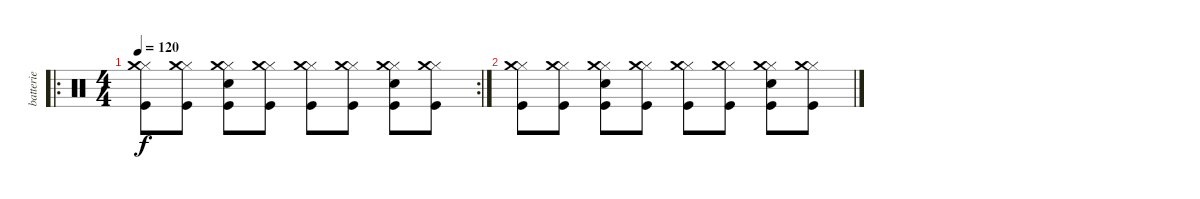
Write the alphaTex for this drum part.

\track ("batterie" "batterie") {instrument percussion}
\staff {score}
\articulation defaults
\ro
\rc 2
\ts (4 4)
\tempo 120
\clef neutral
\ks c
("Kick (hit)" "Hi-Hat (closed)" "Crash medium (hit)").8{dy f} ("Kick (hit)" "Hi-Hat (closed)" "Crash medium (hit)").8 ("Electric Snare (hit)" "Kick (hit)" "Hi-Hat (closed)" "Crash medium (hit)").8 ("Kick (hit)" "Hi-Hat (closed)" "Crash medium (hit)").8 ("Kick (hit)" "Hi-Hat (closed)" "Crash medium (hit)").8 ("Kick (hit)" "Hi-Hat (closed)" "Crash medium (hit)").8 ("Electric Snare (hit)" "Kick (hit)" "Hi-Hat (closed)" "Crash medium (hit)").8 ("Kick (hit)" "Hi-Hat (closed)" "Crash medium (hit)").8 |
("Kick (hit)" "Hi-Hat (closed)" "Crash medium (hit)").8 ("Kick (hit)" "Hi-Hat (closed)" "Crash medium (hit)").8 ("Electric Snare (hit)" "Kick (hit)" "Hi-Hat (closed)" "Crash medium (hit)").8 ("Kick (hit)" "Hi-Hat (closed)" "Crash medium (hit)").8 ("Kick (hit)" "Hi-Hat (closed)" "Crash medium (hit)").8 ("Kick (hit)" "Hi-Hat (closed)" "Crash medium (hit)").8 ("Electric Snare (hit)" "Kick (hit)" "Hi-Hat (closed)" "Crash medium (hit)").8 ("Kick (hit)" "Hi-Hat (closed)" "Crash medium (hit)").8
